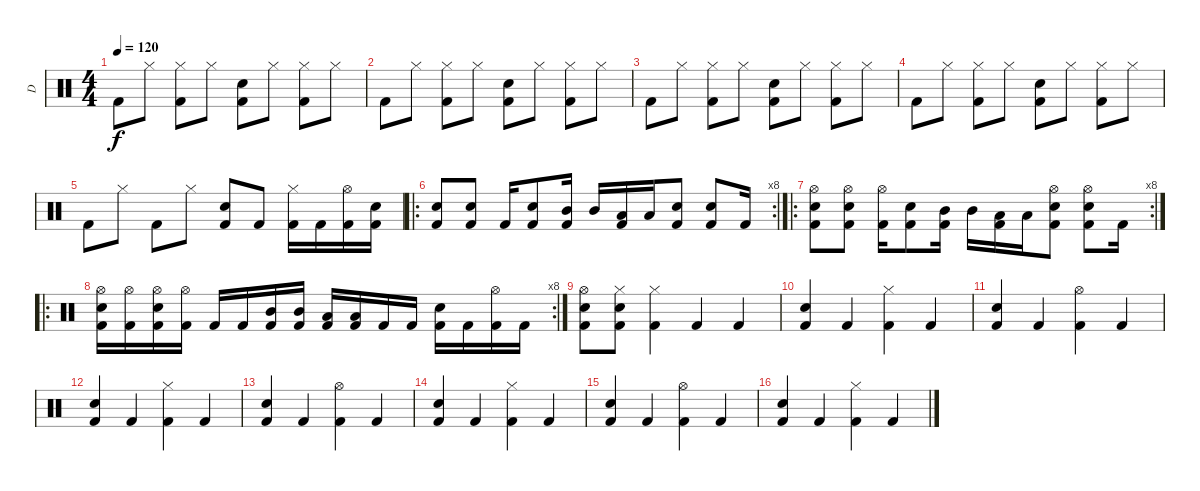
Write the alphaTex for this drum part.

\track ("D" "D") {instrument percussion}
\staff {score}
\articulation defaults
\ts (4 4)
\tempo 120
\clef neutral
\ks c "Kick (hit) 2".8{dy f} "Hi-Hat (closed)".8
("Hi-Hat (closed)" "Kick (hit) 2").8 "Hi-Hat (closed)".8 ("Electric Snare (hit)" "Kick (hit) 2").8 "Hi-Hat (closed)".8 ("Hi-Hat (closed)" "Kick (hit) 2").8 "Hi-Hat (closed)".8 |
"Kick (hit) 2".8 "Hi-Hat (closed)".8 ("Hi-Hat (closed)" "Kick (hit) 2").8 "Hi-Hat (closed)".8 ("Electric Snare (hit)" "Kick (hit) 2").8 "Hi-Hat (closed)".8 ("Hi-Hat (closed)" "Kick (hit) 2").8 "Hi-Hat (closed)".8 |
"Kick (hit) 2".8 "Hi-Hat (closed)".8 ("Hi-Hat (closed)" "Kick (hit) 2").8 "Hi-Hat (closed)".8 ("Electric Snare (hit)" "Kick (hit) 2").8 "Hi-Hat (closed)".8 ("Hi-Hat (closed)" "Kick (hit) 2").8 "Hi-Hat (closed)".8 |
"Kick (hit) 2".8 "Hi-Hat (closed)".8 ("Hi-Hat (closed)" "Kick (hit) 2").8 "Hi-Hat (closed)".8 ("Electric Snare (hit)" "Kick (hit) 2").8 "Hi-Hat (closed)".8 ("Hi-Hat (closed)" "Kick (hit) 2").8 "Hi-Hat (closed)".8 |
"Kick (hit) 2".8 "Hi-Hat (closed)".8 "Kick (hit) 2".8 "Hi-Hat (closed)".8 ("Electric Snare (hit)" "Kick (hit) 2").8 "Kick (hit) 2".8 ("Hi-Hat (closed)" "Kick (hit) 2").16 "Kick (hit) 2".16 ("Hi-Hat (open)" "Kick (hit) 2").16 ("Electric Snare (hit)" "Kick (hit) 2").16 |
\ro
\rc 8
("Electric Snare (hit)" "Kick (hit) 2").8 ("Electric Snare (hit)" "Kick (hit) 2").8 "Kick (hit) 2".16 ("Electric Snare (hit)" "Kick (hit) 2").8 ("Mid Tom (hit)" "Kick (hit) 2").16 "Mid Tom (hit)".16 ("Low Tom (hit)" "Kick (hit) 2").16 "Low Tom (hit)".16 ("Electric Snare (hit)" "Kick (hit) 2").8 ("Electric Snare (hit)" "Kick (hit) 2").8 "Kick (hit) 2".16 |
\ro
\rc 8
("Electric Snare (hit)" "Hi-Hat (open)" "Kick (hit) 2").8 ("Electric Snare (hit)" "Hi-Hat (open)" "Kick (hit) 2").8 ("Hi-Hat (open)" "Kick (hit) 2").16 ("Electric Snare (hit)" "Kick (hit) 2").8 ("Mid Tom (hit)" "Kick (hit) 2").16 "Mid Tom (hit)".16 ("Low Tom (hit)" "Kick (hit) 2").16 "Low Tom (hit)".16 ("Electric Snare (hit)" "Hi-Hat (open)" "Kick (hit) 2").8 ("Electric Snare (hit)" "Hi-Hat (open)" "Kick (hit) 2").8 "Kick (hit) 2".16 |
\ro
\rc 8
("Electric Snare (hit)" "Hi-Hat (open)" "Kick (hit) 2").16 ("Hi-Hat (open)" "Kick (hit) 2").16 ("Electric Snare (hit)" "Hi-Hat (open)" "Kick (hit) 2").16 ("Hi-Hat (open)" "Kick (hit) 2").16 "Kick (hit) 2".16 "Kick (hit) 2".16 ("Mid Tom (hit)" "Kick (hit) 2").16 ("Mid Tom (hit)" "Kick (hit) 2").16 ("Low Tom (hit)" "Kick (hit) 2").16 ("Low Tom (hit)" "Kick (hit) 2").16 "Kick (hit) 2".16 "Kick (hit) 2".16 ("Electric Snare (hit)" "Kick (hit) 2").16 "Kick (hit) 2".16 ("Hi-Hat (open)" "Kick (hit) 2").16 "Kick (hit) 2".16 |
("Hi-Hat (open)" "Electric Snare (hit)" "Kick (hit) 2").8 ("Hi-Hat (closed)" "Electric Snare (hit)" "Kick (hit) 2").8 ("Hi-Hat (closed)" "Kick (hit) 2").4 "Kick (hit) 2".4 "Kick (hit) 2".4 |
("Electric Snare (hit)" "Kick (hit) 2").4 "Kick (hit) 2".4 ("Hi-Hat (closed)" "Kick (hit) 2").4 "Kick (hit) 2".4 |
("Electric Snare (hit)" "Kick (hit) 2").4 "Kick (hit) 2".4 ("Hi-Hat (open)" "Kick (hit) 2").4 "Kick (hit) 2".4 |
("Electric Snare (hit)" "Kick (hit) 2").4 "Kick (hit) 2".4 ("Hi-Hat (closed)" "Kick (hit) 2").4 "Kick (hit) 2".4 |
("Electric Snare (hit)" "Kick (hit) 2").4 "Kick (hit) 2".4 ("Hi-Hat (open)" "Kick (hit) 2").4 "Kick (hit) 2".4 |
("Electric Snare (hit)" "Kick (hit) 2").4 "Kick (hit) 2".4 ("Hi-Hat (closed)" "Kick (hit) 2").4 "Kick (hit) 2".4 |
("Electric Snare (hit)" "Kick (hit) 2").4 "Kick (hit) 2".4 ("Hi-Hat (open)" "Kick (hit) 2").4 "Kick (hit) 2".4 |
("Electric Snare (hit)" "Kick (hit) 2").4 "Kick (hit) 2".4 ("Hi-Hat (closed)" "Kick (hit) 2").4 "Kick (hit) 2".4
